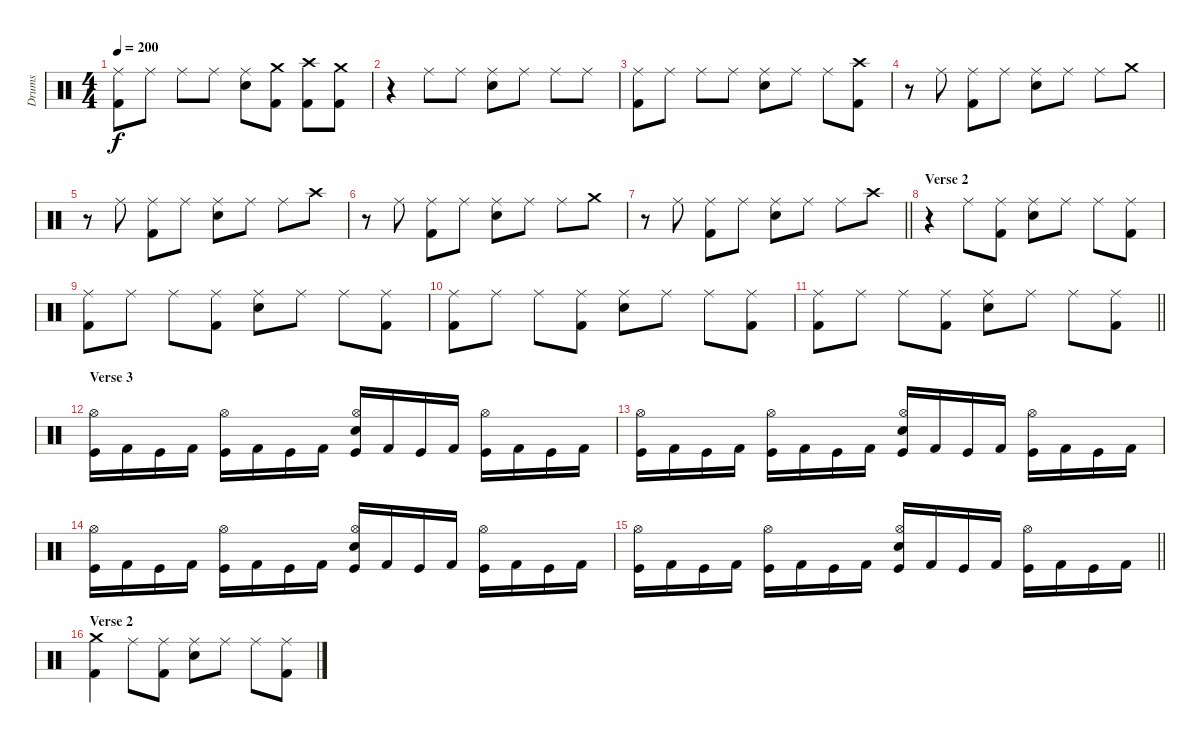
\track ("Drums" "Drums") {instrument percussion}
\staff {score}
\articulation defaults
\ts (4 4)
\tempo 200
\clef neutral
\ks c
("Ride (middle)" "Kick (hit) 2").8{dy f} "Ride (middle)".8 "Ride (middle)".8 "Ride (middle)".8 ("Ride (middle)" "Electric Snare (hit)").8 ("Crash medium (hit)" "Kick (hit) 2").8 ("Crash high (hit)" "Kick (hit) 2").8 ("Crash medium (hit)" "Kick (hit) 2").8 |
r.4 "Ride (middle)".8 "Ride (middle)".8 ("Ride (middle)" "Electric Snare (hit)").8 "Ride (middle)".8 "Ride (middle)".8 "Ride (middle)".8 |
("Ride (middle)" "Kick (hit) 2").8 "Ride (middle)".8 "Ride (middle)".8 "Ride (middle)".8 ("Ride (middle)" "Electric Snare (hit)").8 "Ride (middle)".8 "Ride (middle)".8 ("Crash high (hit)" "Kick (hit) 2").8 |
r.8 "Ride (middle)".8 ("Ride (middle)" "Kick (hit) 2").8 "Ride (middle)".8 ("Ride (middle)" "Electric Snare (hit)").8 "Ride (middle)".8 "Ride (middle)".8 "Crash medium (hit)".8 |
r.8 "Ride (middle)".8 ("Ride (middle)" "Kick (hit) 2").8 "Ride (middle)".8 ("Ride (middle)" "Electric Snare (hit)").8 "Ride (middle)".8 "Ride (middle)".8 "Crash high (hit)".8 |
r.8 "Ride (middle)".8 ("Ride (middle)" "Kick (hit) 2").8 "Ride (middle)".8 ("Ride (middle)" "Electric Snare (hit)").8 "Ride (middle)".8 "Ride (middle)".8 "Crash medium (hit)".8 |
\barLineRight lightlight
r.8 "Ride (middle)".8 ("Ride (middle)" "Kick (hit) 2").8 "Ride (middle)".8 ("Ride (middle)" "Electric Snare (hit)").8 "Ride (middle)".8 "Ride (middle)".8 "Crash high (hit)".8 |
\section ("" "Verse 2")
r.4 "Ride (middle)".8 ("Ride (middle)" "Kick (hit) 2").8 ("Ride (middle)" "Electric Snare (hit)").8 "Ride (middle)".8 "Ride (middle)".8 ("Ride (middle)" "Kick (hit) 2").8 |
("Ride (middle)" "Kick (hit) 2").8 "Ride (middle)".8 "Ride (middle)".8 ("Ride (middle)" "Kick (hit) 2").8 ("Ride (middle)" "Electric Snare (hit)").8 "Ride (middle)".8 "Ride (middle)".8 ("Ride (middle)" "Kick (hit) 2").8 |
("Ride (middle)" "Kick (hit) 2").8 "Ride (middle)".8 "Ride (middle)".8 ("Ride (middle)" "Kick (hit) 2").8 ("Ride (middle)" "Electric Snare (hit)").8 "Ride (middle)".8 "Ride (middle)".8 ("Ride (middle)" "Kick (hit) 2").8 |
\barLineRight lightlight
("Ride (middle)" "Kick (hit) 2").8 "Ride (middle)".8 "Ride (middle)".8 ("Ride (middle)" "Kick (hit) 2").8 ("Ride (middle)" "Electric Snare (hit)").8 "Ride (middle)".8 "Ride (middle)".8 ("Ride (middle)" "Kick (hit) 2").8 |
\section ("" "Verse 3")
("Hi-Hat (open)" "Kick (hit)").16 "Kick (hit) 2".16 "Kick (hit)".16 "Kick (hit) 2".16 ("Hi-Hat (open)" "Kick (hit)").16 "Kick (hit) 2".16 "Kick (hit)".16 "Kick (hit) 2".16 ("Hi-Hat (open)" "Electric Snare (hit)" "Kick (hit)").16 "Kick (hit) 2".16 "Kick (hit)".16 "Kick (hit) 2".16 ("Hi-Hat (open)" "Kick (hit)").16 "Kick (hit) 2".16 "Kick (hit)".16 "Kick (hit) 2".16 |
("Hi-Hat (open)" "Kick (hit)").16 "Kick (hit) 2".16 "Kick (hit)".16 "Kick (hit) 2".16 ("Hi-Hat (open)" "Kick (hit)").16 "Kick (hit) 2".16 "Kick (hit)".16 "Kick (hit) 2".16 ("Hi-Hat (open)" "Electric Snare (hit)" "Kick (hit)").16 "Kick (hit) 2".16 "Kick (hit)".16 "Kick (hit) 2".16 ("Hi-Hat (open)" "Kick (hit)").16 "Kick (hit) 2".16 "Kick (hit)".16 "Kick (hit) 2".16 |
("Hi-Hat (open)" "Kick (hit)").16 "Kick (hit) 2".16 "Kick (hit)".16 "Kick (hit) 2".16 ("Hi-Hat (open)" "Kick (hit)").16 "Kick (hit) 2".16 "Kick (hit)".16 "Kick (hit) 2".16 ("Hi-Hat (open)" "Electric Snare (hit)" "Kick (hit)").16 "Kick (hit) 2".16 "Kick (hit)".16 "Kick (hit) 2".16 ("Hi-Hat (open)" "Kick (hit)").16 "Kick (hit) 2".16 "Kick (hit)".16 "Kick (hit) 2".16 |
\barLineRight lightlight
("Hi-Hat (open)" "Kick (hit)").16 "Kick (hit) 2".16 "Kick (hit)".16 "Kick (hit) 2".16 ("Hi-Hat (open)" "Kick (hit)").16 "Kick (hit) 2".16 "Kick (hit)".16 "Kick (hit) 2".16 ("Hi-Hat (open)" "Electric Snare (hit)" "Kick (hit)").16 "Kick (hit) 2".16 "Kick (hit)".16 "Kick (hit) 2".16 ("Hi-Hat (open)" "Kick (hit)").16 "Kick (hit) 2".16 "Kick (hit)".16 "Kick (hit) 2".16 |
\section ("" "Verse 2")
("Crash medium (hit)" "Kick (hit) 2").4 "Ride (middle)".8 ("Ride (middle)" "Kick (hit) 2").8 ("Ride (middle)" "Electric Snare (hit)").8 "Ride (middle)".8 "Ride (middle)".8 ("Ride (middle)" "Kick (hit) 2").8
